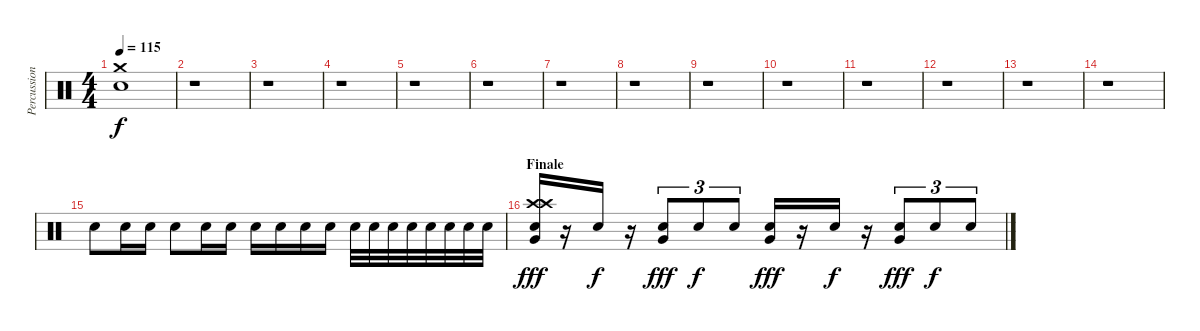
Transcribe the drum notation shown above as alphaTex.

\track ("Percussions" "Percussion") {instrument percussion}
\staff {score}
\articulation defaults
\ts (4 4)
\section ("" " ")
\tempo 115
\clef neutral
\ks c
("Crash medium (hit)" "Electric Snare (hit)").1{dy f} |
r.1 |
r.1 |
r.1 |
r.1 |
r.1 |
r.1 |
r.1 |
r.1 |
r.1 |
r.1 |
r.1 |
r.1 |
r.1 |
"Electric Snare (hit)".8 "Electric Snare (hit)".16 "Electric Snare (hit)".16 "Electric Snare (hit)".8 "Electric Snare (hit)".16 "Electric Snare (hit)".16 "Electric Snare (hit)".16 "Electric Snare (hit)".16 "Electric Snare (hit)".16 "Electric Snare (hit)".16 "Electric Snare (hit)".32 "Electric Snare (hit)".32 "Electric Snare (hit)".32 "Electric Snare (hit)".32 "Electric Snare (hit)".32 "Electric Snare (hit)".32 "Electric Snare (hit)".32 "Electric Snare (hit)".32 |
\section ("" "Finale")
("Crash high (hit)" "Crash high (hit)" "Electric Snare (hit)" "Very Low Tom (hit)").16{dy fff} r.16 "Electric Snare (hit)".16{dy f} r.16 ("Electric Snare (hit)" "Very Low Tom (hit)").8{tu (3 2) dy fff} "Electric Snare (hit)".8{tu (3 2) dy f} "Electric Snare (hit)".8{tu (3 2)} ("Electric Snare (hit)" "Very Low Tom (hit)").16{dy fff} r.16 "Electric Snare (hit)".16{dy f} r.16 ("Electric Snare (hit)" "Very Low Tom (hit)").8{tu (3 2) dy fff} "Electric Snare (hit)".8{tu (3 2) dy f} "Electric Snare (hit)".8{tu (3 2)}
